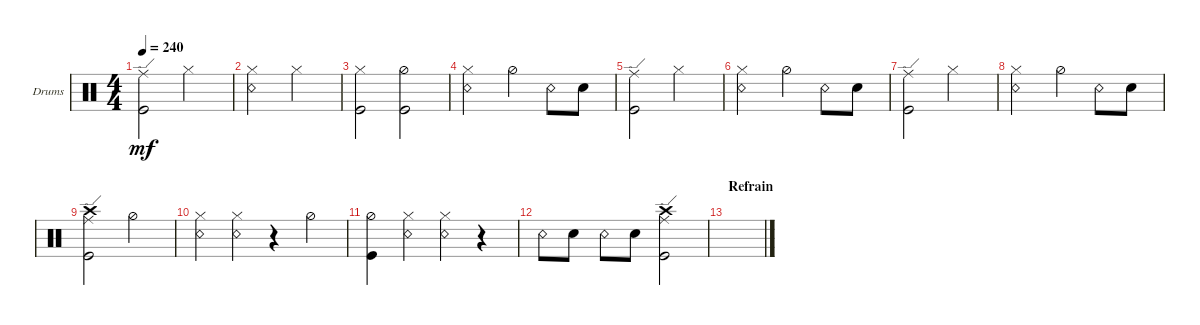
\defaultSystemsLayout 4
\bracketExtendMode groupsimilarinstruments
\firstSystemTrackNameOrientation horizontal
\otherSystemsTrackNameOrientation horizontal
\track ("Drumkit" "Drums") {instrument percussion}
\staff {score}
\articulation defaults
\ts (4 4)
\tempo 240
\clef neutral
\ks c
("Ride (edge)" "Kick (hit)").2{dy mf} "Hi-Hat (closed)".2 |
("Snare (rim shot)" "Hi-Hat (closed)").2 "Hi-Hat (closed)".2 |
("Kick (hit)" "Hi-Hat (closed)").2 ("Kick (hit)" "Hi-Hat (half)").2 |
("Snare (rim shot)" "Hi-Hat (closed)").2 "Hi-Hat (half)".4 "Snare (rim shot)".8 "Snare (hit) 2".8 |
("Ride (edge)" "Kick (hit)").2 "Hi-Hat (closed)".2 |
("Snare (rim shot)" "Hi-Hat (closed)").2 "Hi-Hat (half)".4 "Snare (rim shot)".8 "Snare (hit) 2".8 |
("Ride (edge)" "Kick (hit)").2 "Hi-Hat (closed)".2 |
("Snare (rim shot)" "Hi-Hat (closed)").2 "Hi-Hat (half)".4 "Snare (rim shot)".8 "Snare (hit) 2".8 |
("Crash high (hit)" "Ride (edge)" "Kick (hit)").2 "Hi-Hat (half)".2 |
("Snare (rim shot)" "Hi-Hat (closed)").4 ("Snare (rim shot)" "Hi-Hat (closed)").4 r.4 "Hi-Hat (half)".4 |
("Hi-Hat (half)" "Kick (hit)").4 ("Snare (rim shot)" "Hi-Hat (closed)").4 ("Snare (rim shot)" "Hi-Hat (closed)").4 r.4 |
"Snare (rim shot)".8 "Snare (hit) 2".8 "Snare (rim shot)".8 "Snare (hit) 2".8 ("Crash high (hit)" "Ride (edge)" "Kick (hit)").2 |
\section ("" "Refrain")
